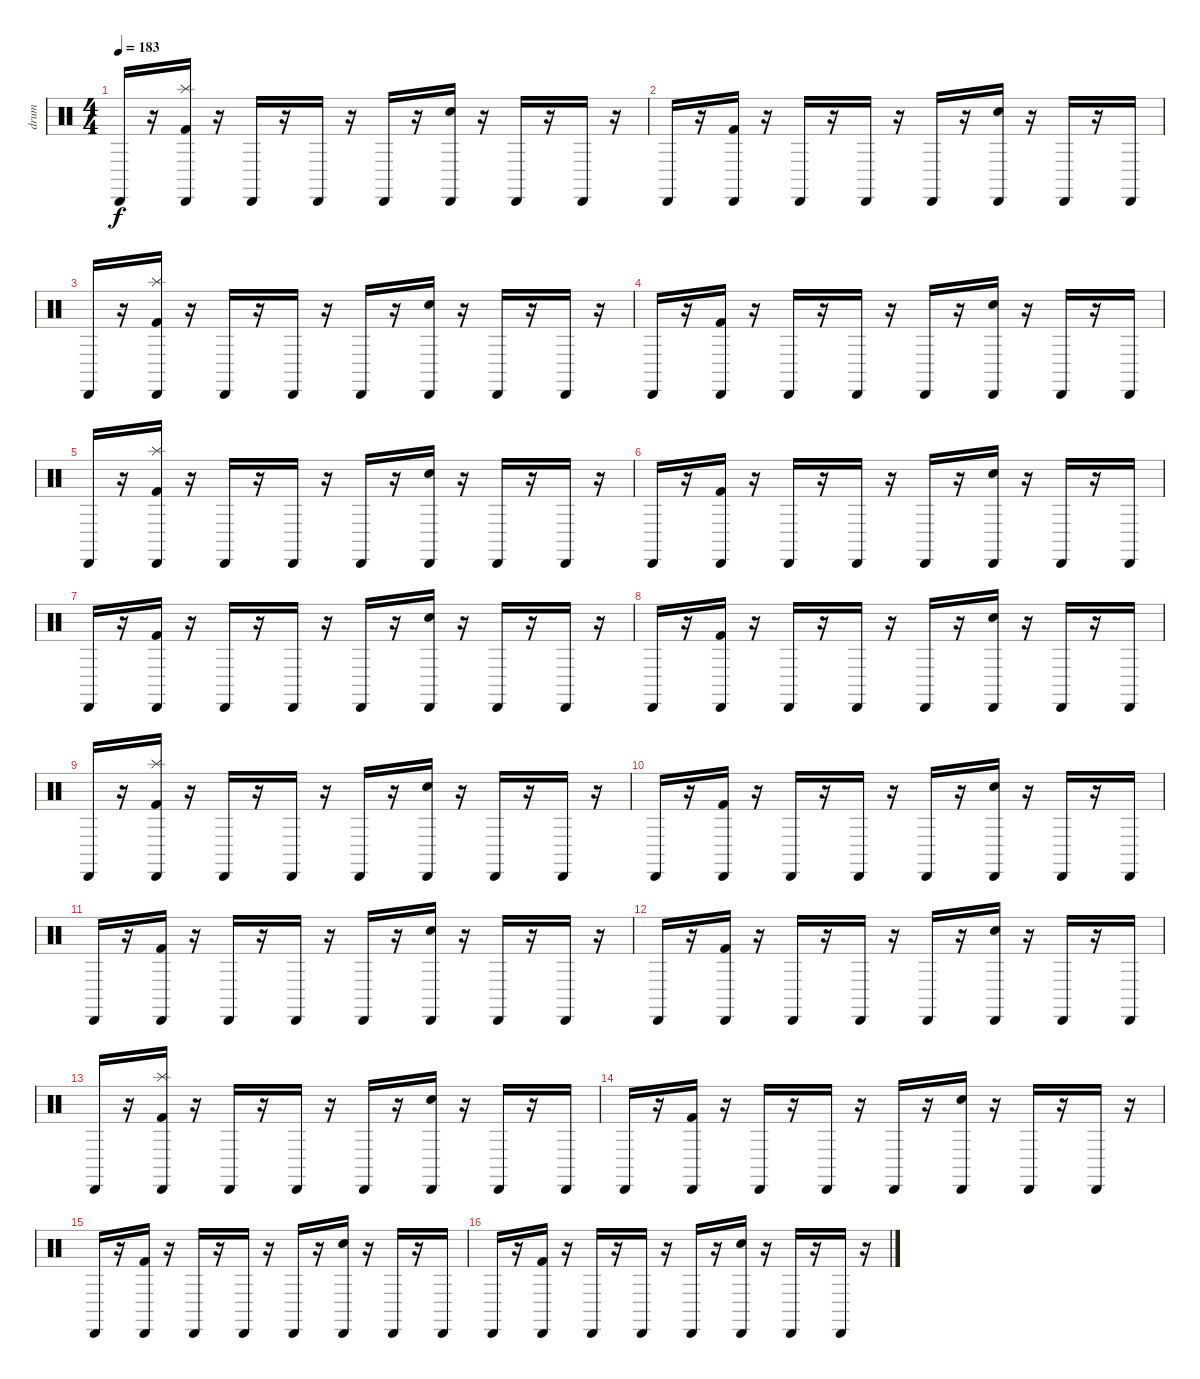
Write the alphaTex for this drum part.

\track ("drum" "drum") {instrument percussion}
\staff {score}
\articulation defaults
\ts (4 4)
\tempo 183
\clef neutral
\ks c "Cabasa (hit)".16{dy f}
r.16 ("Cabasa (hit)" "Kick (hit) 2" "Splash (hit)").16 r.16 "Cabasa (hit)".16 r.16 "Cabasa (hit)".16 r.16 "Cabasa (hit)".16 r.16 ("Cabasa (hit)" "Snare (hit) 2").16 r.16 "Cabasa (hit)".16 r.16 "Cabasa (hit)".16 r.16 |
"Cabasa (hit)".16 r.16 ("Cabasa (hit)" "Kick (hit) 2").16 r.16 "Cabasa (hit)".16 r.16 "Cabasa (hit)".16 r.16 "Cabasa (hit)".16 r.16 ("Cabasa (hit)" "Snare (hit) 2").16 r.16 "Cabasa (hit)".16 r.16 "Cabasa (hit)".16 |
"Cabasa (hit)".16 r.16 ("Cabasa (hit)" "Kick (hit) 2" "Splash (hit)").16 r.16 "Cabasa (hit)".16 r.16 "Cabasa (hit)".16 r.16 "Cabasa (hit)".16 r.16 ("Cabasa (hit)" "Snare (hit) 2").16 r.16 "Cabasa (hit)".16 r.16 "Cabasa (hit)".16 r.16 |
"Cabasa (hit)".16 r.16 ("Cabasa (hit)" "Kick (hit) 2").16 r.16 "Cabasa (hit)".16 r.16 "Cabasa (hit)".16 r.16 "Cabasa (hit)".16 r.16 ("Cabasa (hit)" "Snare (hit) 2").16 r.16 "Cabasa (hit)".16 r.16 "Cabasa (hit)".16 |
"Cabasa (hit)".16 r.16 ("Cabasa (hit)" "Kick (hit) 2" "Splash (hit)").16 r.16 "Cabasa (hit)".16 r.16 "Cabasa (hit)".16 r.16 "Cabasa (hit)".16 r.16 ("Cabasa (hit)" "Snare (hit) 2").16 r.16 "Cabasa (hit)".16 r.16 "Cabasa (hit)".16 r.16 |
"Cabasa (hit)".16 r.16 ("Cabasa (hit)" "Kick (hit) 2").16 r.16 "Cabasa (hit)".16 r.16 "Cabasa (hit)".16 r.16 "Cabasa (hit)".16 r.16 ("Cabasa (hit)" "Snare (hit) 2").16 r.16 "Cabasa (hit)".16 r.16 "Cabasa (hit)".16 |
"Cabasa (hit)".16 r.16 ("Cabasa (hit)" "Kick (hit) 2").16 r.16 "Cabasa (hit)".16 r.16 "Cabasa (hit)".16 r.16 "Cabasa (hit)".16 r.16 ("Cabasa (hit)" "Snare (hit) 2").16 r.16 "Cabasa (hit)".16 r.16 "Cabasa (hit)".16 r.16 |
"Cabasa (hit)".16 r.16 ("Cabasa (hit)" "Kick (hit) 2").16 r.16 "Cabasa (hit)".16 r.16 "Cabasa (hit)".16 r.16 "Cabasa (hit)".16 r.16 ("Cabasa (hit)" "Snare (hit) 2").16 r.16 "Cabasa (hit)".16 r.16 "Cabasa (hit)".16 |
"Cabasa (hit)".16 r.16 ("Cabasa (hit)" "Kick (hit) 2" "Splash (hit)").16 r.16 "Cabasa (hit)".16 r.16 "Cabasa (hit)".16 r.16 "Cabasa (hit)".16 r.16 ("Cabasa (hit)" "Snare (hit) 2").16 r.16 "Cabasa (hit)".16 r.16 "Cabasa (hit)".16 r.16 |
"Cabasa (hit)".16 r.16 ("Cabasa (hit)" "Kick (hit) 2").16 r.16 "Cabasa (hit)".16 r.16 "Cabasa (hit)".16 r.16 "Cabasa (hit)".16 r.16 ("Cabasa (hit)" "Snare (hit) 2").16 r.16 "Cabasa (hit)".16 r.16 "Cabasa (hit)".16 |
"Cabasa (hit)".16 r.16 ("Cabasa (hit)" "Kick (hit) 2").16 r.16 "Cabasa (hit)".16 r.16 "Cabasa (hit)".16 r.16 "Cabasa (hit)".16 r.16 ("Cabasa (hit)" "Snare (hit) 2").16 r.16 "Cabasa (hit)".16 r.16 "Cabasa (hit)".16 r.16 |
"Cabasa (hit)".16 r.16 ("Cabasa (hit)" "Kick (hit) 2").16 r.16 "Cabasa (hit)".16 r.16 "Cabasa (hit)".16 r.16 "Cabasa (hit)".16 r.16 ("Cabasa (hit)" "Snare (hit) 2").16 r.16 "Cabasa (hit)".16 r.16 "Cabasa (hit)".16 |
"Cabasa (hit)".16 r.16 ("Cabasa (hit)" "Kick (hit) 2" "Splash (hit)").16 r.16 "Cabasa (hit)".16 r.16 "Cabasa (hit)".16 r.16 "Cabasa (hit)".16 r.16 ("Cabasa (hit)" "Snare (hit) 2").16 r.16 "Cabasa (hit)".16 r.16 "Cabasa (hit)".16 |
"Cabasa (hit)".16 r.16 ("Cabasa (hit)" "Kick (hit) 2").16 r.16 "Cabasa (hit)".16 r.16 "Cabasa (hit)".16 r.16 "Cabasa (hit)".16 r.16 ("Cabasa (hit)" "Snare (hit) 2").16 r.16 "Cabasa (hit)".16 r.16 "Cabasa (hit)".16 r.16 |
"Cabasa (hit)".16 r.16 ("Cabasa (hit)" "Kick (hit) 2").16 r.16 "Cabasa (hit)".16 r.16 "Cabasa (hit)".16 r.16 "Cabasa (hit)".16 r.16 ("Cabasa (hit)" "Snare (hit) 2").16 r.16 "Cabasa (hit)".16 r.16 "Cabasa (hit)".16 |
"Cabasa (hit)".16 r.16 ("Cabasa (hit)" "Kick (hit) 2").16 r.16 "Cabasa (hit)".16 r.16 "Cabasa (hit)".16 r.16 "Cabasa (hit)".16 r.16 ("Cabasa (hit)" "Snare (hit) 2").16 r.16 "Cabasa (hit)".16 r.16 "Cabasa (hit)".16 r.16
